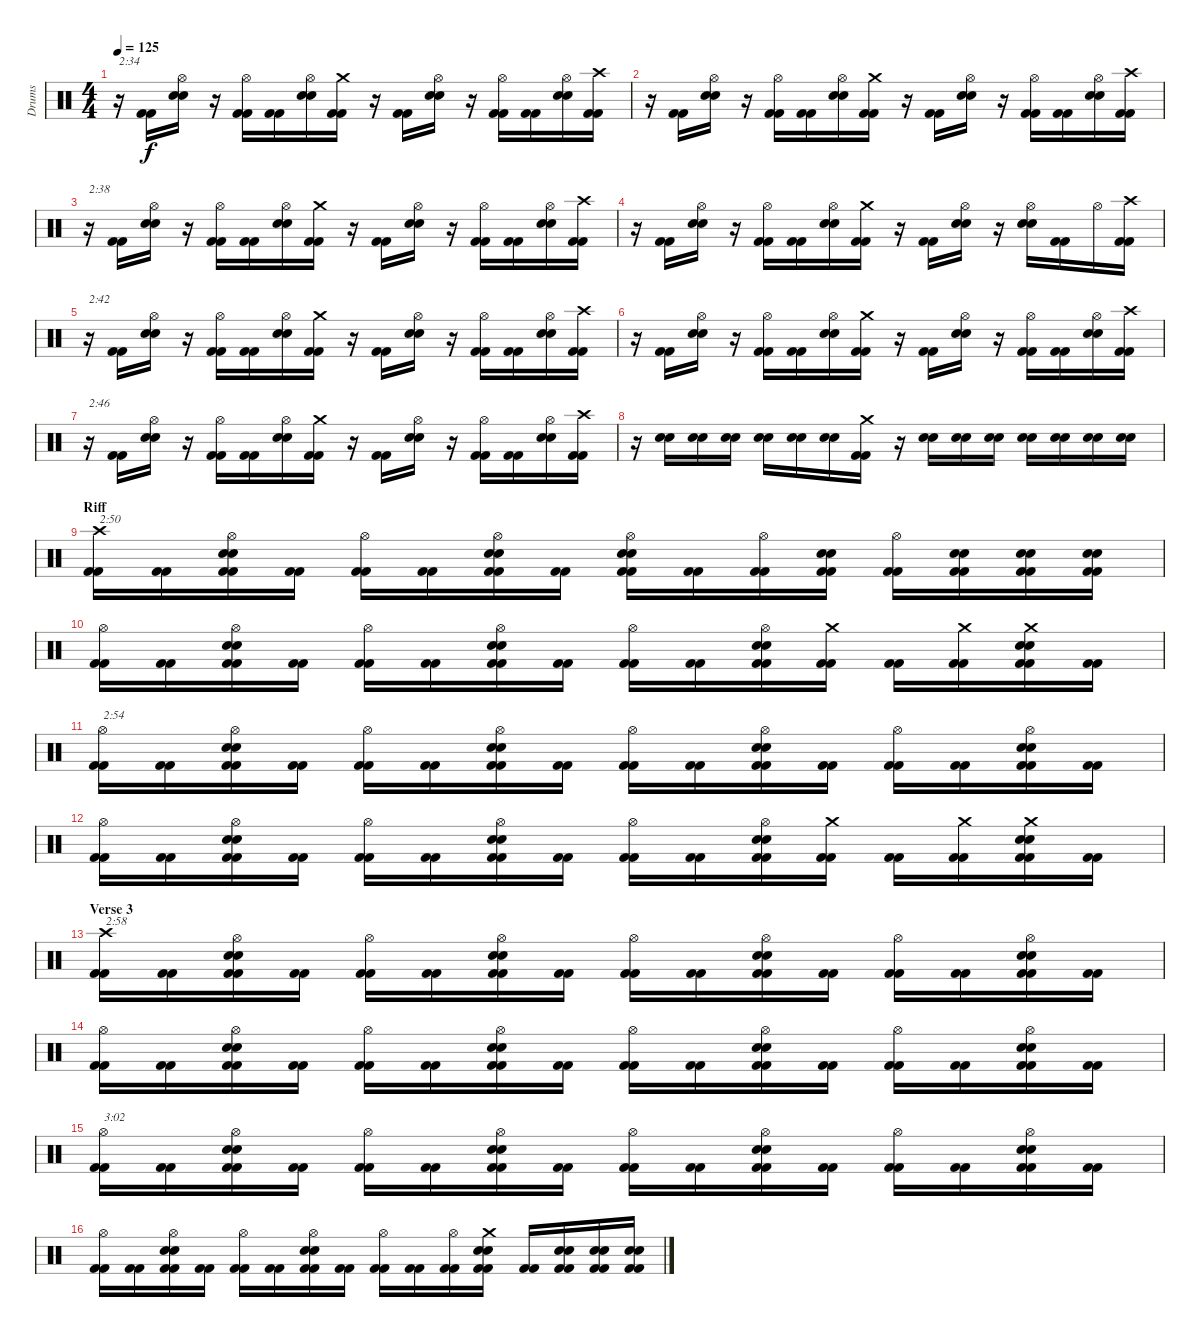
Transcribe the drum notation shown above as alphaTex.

\track ("Drums" "Drums") {instrument percussion}
\staff {score}
\articulation defaults
\ts (4 4)
\tempo 125
\clef neutral
\ks c
r.16{txt "2:34" dy f} ("Kick (hit) 2" "Kick (hit) 2").16 ("Hi-Hat (open)" "Snare (hit) 2" "Snare (hit) 2").16 r.16 ("Hi-Hat (open)" "Kick (hit) 2" "Kick (hit) 2").16 ("Kick (hit) 2" "Kick (hit) 2").16 ("Hi-Hat (open)" "Snare (hit) 2" "Snare (hit) 2").16 ("Crash medium (hit)" "Kick (hit) 2" "Kick (hit) 2").16 r.16 ("Kick (hit) 2" "Kick (hit) 2").16 ("Hi-Hat (open)" "Snare (hit) 2" "Snare (hit) 2").16 r.16 ("Hi-Hat (open)" "Kick (hit) 2" "Kick (hit) 2").16 ("Kick (hit) 2" "Kick (hit) 2").16 ("Hi-Hat (open)" "Snare (hit) 2" "Snare (hit) 2").16 ("Crash high (hit)" "Kick (hit) 2" "Kick (hit) 2").16 |
r.16 ("Kick (hit) 2" "Kick (hit) 2").16 ("Hi-Hat (open)" "Snare (hit) 2" "Snare (hit) 2").16 r.16 ("Hi-Hat (open)" "Kick (hit) 2" "Kick (hit) 2").16 ("Kick (hit) 2" "Kick (hit) 2").16 ("Hi-Hat (open)" "Snare (hit) 2" "Snare (hit) 2").16 ("Crash medium (hit)" "Kick (hit) 2" "Kick (hit) 2").16 r.16 ("Kick (hit) 2" "Kick (hit) 2").16 ("Hi-Hat (open)" "Snare (hit) 2" "Snare (hit) 2").16 r.16 ("Hi-Hat (open)" "Kick (hit) 2" "Kick (hit) 2").16 ("Kick (hit) 2" "Kick (hit) 2").16 ("Hi-Hat (open)" "Snare (hit) 2" "Snare (hit) 2").16 ("Crash high (hit)" "Kick (hit) 2" "Kick (hit) 2").16 |
r.16{txt "2:38"} ("Kick (hit) 2" "Kick (hit) 2").16 ("Hi-Hat (open)" "Snare (hit) 2" "Snare (hit) 2").16 r.16 ("Hi-Hat (open)" "Kick (hit) 2" "Kick (hit) 2").16 ("Kick (hit) 2" "Kick (hit) 2").16 ("Hi-Hat (open)" "Snare (hit) 2" "Snare (hit) 2").16 ("Crash medium (hit)" "Kick (hit) 2" "Kick (hit) 2").16 r.16 ("Kick (hit) 2" "Kick (hit) 2").16 ("Hi-Hat (open)" "Snare (hit) 2" "Snare (hit) 2").16 r.16 ("Hi-Hat (open)" "Kick (hit) 2" "Kick (hit) 2").16 ("Kick (hit) 2" "Kick (hit) 2").16 ("Hi-Hat (open)" "Snare (hit) 2" "Snare (hit) 2").16 ("Crash high (hit)" "Kick (hit) 2" "Kick (hit) 2").16 |
r.16 ("Kick (hit) 2" "Kick (hit) 2").16 ("Hi-Hat (open)" "Snare (hit) 2" "Snare (hit) 2").16 r.16 ("Hi-Hat (open)" "Kick (hit) 2" "Kick (hit) 2").16 ("Kick (hit) 2" "Kick (hit) 2").16 ("Hi-Hat (open)" "Snare (hit) 2" "Snare (hit) 2").16 ("Crash medium (hit)" "Kick (hit) 2" "Kick (hit) 2").16 r.16 ("Kick (hit) 2" "Kick (hit) 2").16 ("Hi-Hat (open)" "Snare (hit) 2" "Snare (hit) 2").16 r.16 ("Hi-Hat (open)" "Snare (hit) 2" "Snare (hit) 2").16 ("Kick (hit) 2" "Kick (hit) 2").16 "Hi-Hat (open)".16 ("Crash high (hit)" "Kick (hit) 2" "Kick (hit) 2").16 |
r.16{txt "2:42"} ("Kick (hit) 2" "Kick (hit) 2").16 ("Hi-Hat (open)" "Snare (hit) 2" "Snare (hit) 2").16 r.16 ("Hi-Hat (open)" "Kick (hit) 2" "Kick (hit) 2").16 ("Kick (hit) 2" "Kick (hit) 2").16 ("Hi-Hat (open)" "Snare (hit) 2" "Snare (hit) 2").16 ("Crash medium (hit)" "Kick (hit) 2" "Kick (hit) 2").16 r.16 ("Kick (hit) 2" "Kick (hit) 2").16 ("Hi-Hat (open)" "Snare (hit) 2" "Snare (hit) 2").16 r.16 ("Hi-Hat (open)" "Kick (hit) 2" "Kick (hit) 2").16 ("Kick (hit) 2" "Kick (hit) 2").16 ("Hi-Hat (open)" "Snare (hit) 2" "Snare (hit) 2").16 ("Crash high (hit)" "Kick (hit) 2" "Kick (hit) 2").16 |
r.16 ("Kick (hit) 2" "Kick (hit) 2").16 ("Hi-Hat (open)" "Snare (hit) 2" "Snare (hit) 2").16 r.16 ("Hi-Hat (open)" "Kick (hit) 2" "Kick (hit) 2").16 ("Kick (hit) 2" "Kick (hit) 2").16 ("Hi-Hat (open)" "Snare (hit) 2" "Snare (hit) 2").16 ("Crash medium (hit)" "Kick (hit) 2" "Kick (hit) 2").16 r.16 ("Kick (hit) 2" "Kick (hit) 2").16 ("Hi-Hat (open)" "Snare (hit) 2" "Snare (hit) 2").16 r.16 ("Hi-Hat (open)" "Kick (hit) 2" "Kick (hit) 2").16 ("Kick (hit) 2" "Kick (hit) 2").16 ("Hi-Hat (open)" "Snare (hit) 2" "Snare (hit) 2").16 ("Crash high (hit)" "Kick (hit) 2" "Kick (hit) 2").16 |
r.16{txt "2:46"} ("Kick (hit) 2" "Kick (hit) 2").16 ("Hi-Hat (open)" "Snare (hit) 2" "Snare (hit) 2").16 r.16 ("Hi-Hat (open)" "Kick (hit) 2" "Kick (hit) 2").16 ("Kick (hit) 2" "Kick (hit) 2").16 ("Hi-Hat (open)" "Snare (hit) 2" "Snare (hit) 2").16 ("Crash medium (hit)" "Kick (hit) 2" "Kick (hit) 2").16 r.16 ("Kick (hit) 2" "Kick (hit) 2").16 ("Hi-Hat (open)" "Snare (hit) 2" "Snare (hit) 2").16 r.16 ("Hi-Hat (open)" "Kick (hit) 2" "Kick (hit) 2").16 ("Kick (hit) 2" "Kick (hit) 2").16 ("Hi-Hat (open)" "Snare (hit) 2" "Snare (hit) 2").16 ("Crash high (hit)" "Kick (hit) 2" "Kick (hit) 2").16 |
r.16 ("Snare (hit) 2" "Snare (hit) 2").16 ("Snare (hit) 2" "Snare (hit) 2").16 ("Snare (hit) 2" "Snare (hit) 2").16 ("Snare (hit) 2" "Snare (hit) 2").16 ("Snare (hit) 2" "Snare (hit) 2").16 ("Snare (hit) 2" "Snare (hit) 2").16 ("Crash medium (hit)" "Kick (hit) 2" "Kick (hit) 2").16 r.16 ("Snare (hit) 2" "Snare (hit) 2").16 ("Snare (hit) 2" "Snare (hit) 2").16 ("Snare (hit) 2" "Snare (hit) 2").16 ("Snare (hit) 2" "Snare (hit) 2").16 ("Snare (hit) 2" "Snare (hit) 2").16 ("Snare (hit) 2" "Snare (hit) 2").16 ("Snare (hit) 2" "Snare (hit) 2").16 |
\section ("" "Riff")
("Crash high (hit)" "Kick (hit) 2" "Kick (hit) 2").16{txt "2:50"} ("Kick (hit) 2" "Kick (hit) 2").16 ("Hi-Hat (open)" "Snare (hit) 2" "Snare (hit) 2" "Kick (hit) 2" "Kick (hit) 2").16 ("Kick (hit) 2" "Kick (hit) 2").16 ("Hi-Hat (open)" "Kick (hit) 2" "Kick (hit) 2").16 ("Kick (hit) 2" "Kick (hit) 2").16 ("Hi-Hat (open)" "Snare (hit) 2" "Snare (hit) 2" "Kick (hit) 2" "Kick (hit) 2").16 ("Kick (hit) 2" "Kick (hit) 2").16 ("Hi-Hat (open)" "Snare (hit) 2" "Snare (hit) 2" "Kick (hit) 2" "Kick (hit) 2").16 ("Kick (hit) 2" "Kick (hit) 2").16 ("Hi-Hat (open)" "Kick (hit) 2" "Kick (hit) 2").16 ("Snare (hit) 2" "Snare (hit) 2" "Kick (hit) 2" "Kick (hit) 2").16 ("Hi-Hat (open)" "Kick (hit) 2" "Kick (hit) 2").16 ("Snare (hit) 2" "Snare (hit) 2" "Kick (hit) 2" "Kick (hit) 2").16 ("Snare (hit) 2" "Snare (hit) 2" "Kick (hit) 2" "Kick (hit) 2").16 ("Snare (hit) 2" "Snare (hit) 2" "Kick (hit) 2" "Kick (hit) 2").16 |
("Hi-Hat (open)" "Kick (hit) 2" "Kick (hit) 2").16 ("Kick (hit) 2" "Kick (hit) 2").16 ("Hi-Hat (open)" "Snare (hit) 2" "Snare (hit) 2" "Kick (hit) 2" "Kick (hit) 2").16 ("Kick (hit) 2" "Kick (hit) 2").16 ("Hi-Hat (open)" "Kick (hit) 2" "Kick (hit) 2").16 ("Kick (hit) 2" "Kick (hit) 2").16 ("Hi-Hat (open)" "Snare (hit) 2" "Snare (hit) 2" "Kick (hit) 2" "Kick (hit) 2").16 ("Kick (hit) 2" "Kick (hit) 2").16 ("Hi-Hat (open)" "Kick (hit) 2" "Kick (hit) 2").16 ("Kick (hit) 2" "Kick (hit) 2").16 ("Hi-Hat (open)" "Snare (hit) 2" "Snare (hit) 2" "Kick (hit) 2" "Kick (hit) 2").16 ("Crash medium (hit)" "Kick (hit) 2" "Kick (hit) 2").16 ("Kick (hit) 2" "Kick (hit) 2").16 ("Crash medium (hit)" "Kick (hit) 2" "Kick (hit) 2").16 ("Crash medium (hit)" "Snare (hit) 2" "Snare (hit) 2" "Kick (hit) 2" "Kick (hit) 2").16 ("Kick (hit) 2" "Kick (hit) 2").16 |
("Hi-Hat (open)" "Kick (hit) 2" "Kick (hit) 2").16{txt "2:54"} ("Kick (hit) 2" "Kick (hit) 2").16 ("Hi-Hat (open)" "Snare (hit) 2" "Snare (hit) 2" "Kick (hit) 2" "Kick (hit) 2").16 ("Kick (hit) 2" "Kick (hit) 2").16 ("Hi-Hat (open)" "Kick (hit) 2" "Kick (hit) 2").16 ("Kick (hit) 2" "Kick (hit) 2").16 ("Hi-Hat (open)" "Snare (hit) 2" "Snare (hit) 2" "Kick (hit) 2" "Kick (hit) 2").16 ("Kick (hit) 2" "Kick (hit) 2").16 ("Hi-Hat (open)" "Kick (hit) 2" "Kick (hit) 2").16 ("Kick (hit) 2" "Kick (hit) 2").16 ("Hi-Hat (open)" "Snare (hit) 2" "Snare (hit) 2" "Kick (hit) 2" "Kick (hit) 2").16 ("Kick (hit) 2" "Kick (hit) 2").16 ("Hi-Hat (open)" "Kick (hit) 2" "Kick (hit) 2").16 ("Kick (hit) 2" "Kick (hit) 2").16 ("Hi-Hat (open)" "Snare (hit) 2" "Snare (hit) 2" "Kick (hit) 2" "Kick (hit) 2").16 ("Kick (hit) 2" "Kick (hit) 2").16 |
("Hi-Hat (open)" "Kick (hit) 2" "Kick (hit) 2").16 ("Kick (hit) 2" "Kick (hit) 2").16 ("Hi-Hat (open)" "Snare (hit) 2" "Snare (hit) 2" "Kick (hit) 2" "Kick (hit) 2").16 ("Kick (hit) 2" "Kick (hit) 2").16 ("Hi-Hat (open)" "Kick (hit) 2" "Kick (hit) 2").16 ("Kick (hit) 2" "Kick (hit) 2").16 ("Hi-Hat (open)" "Snare (hit) 2" "Snare (hit) 2" "Kick (hit) 2" "Kick (hit) 2").16 ("Kick (hit) 2" "Kick (hit) 2").16 ("Hi-Hat (open)" "Kick (hit) 2" "Kick (hit) 2").16 ("Kick (hit) 2" "Kick (hit) 2").16 ("Hi-Hat (open)" "Snare (hit) 2" "Snare (hit) 2" "Kick (hit) 2" "Kick (hit) 2").16 ("Crash medium (hit)" "Kick (hit) 2" "Kick (hit) 2").16 ("Kick (hit) 2" "Kick (hit) 2").16 ("Crash medium (hit)" "Kick (hit) 2" "Kick (hit) 2").16 ("Crash medium (hit)" "Snare (hit) 2" "Snare (hit) 2" "Kick (hit) 2" "Kick (hit) 2").16 ("Kick (hit) 2" "Kick (hit) 2").16 |
\section ("" "Verse 3")
("Crash high (hit)" "Kick (hit) 2" "Kick (hit) 2").16{txt "2:58"} ("Kick (hit) 2" "Kick (hit) 2").16 ("Hi-Hat (open)" "Snare (hit) 2" "Snare (hit) 2" "Kick (hit) 2" "Kick (hit) 2").16 ("Kick (hit) 2" "Kick (hit) 2").16 ("Hi-Hat (open)" "Kick (hit) 2" "Kick (hit) 2").16 ("Kick (hit) 2" "Kick (hit) 2").16 ("Hi-Hat (open)" "Snare (hit) 2" "Snare (hit) 2" "Kick (hit) 2" "Kick (hit) 2").16 ("Kick (hit) 2" "Kick (hit) 2").16 ("Hi-Hat (open)" "Kick (hit) 2" "Kick (hit) 2").16 ("Kick (hit) 2" "Kick (hit) 2").16 ("Hi-Hat (open)" "Snare (hit) 2" "Snare (hit) 2" "Kick (hit) 2" "Kick (hit) 2").16 ("Kick (hit) 2" "Kick (hit) 2").16 ("Hi-Hat (open)" "Kick (hit) 2" "Kick (hit) 2").16 ("Kick (hit) 2" "Kick (hit) 2").16 ("Hi-Hat (open)" "Snare (hit) 2" "Snare (hit) 2" "Kick (hit) 2" "Kick (hit) 2").16 ("Kick (hit) 2" "Kick (hit) 2").16 |
("Hi-Hat (open)" "Kick (hit) 2" "Kick (hit) 2").16 ("Kick (hit) 2" "Kick (hit) 2").16 ("Hi-Hat (open)" "Snare (hit) 2" "Snare (hit) 2" "Kick (hit) 2" "Kick (hit) 2").16 ("Kick (hit) 2" "Kick (hit) 2").16 ("Hi-Hat (open)" "Kick (hit) 2" "Kick (hit) 2").16 ("Kick (hit) 2" "Kick (hit) 2").16 ("Hi-Hat (open)" "Snare (hit) 2" "Snare (hit) 2" "Kick (hit) 2" "Kick (hit) 2").16 ("Kick (hit) 2" "Kick (hit) 2").16 ("Hi-Hat (open)" "Kick (hit) 2" "Kick (hit) 2").16 ("Kick (hit) 2" "Kick (hit) 2").16 ("Hi-Hat (open)" "Snare (hit) 2" "Snare (hit) 2" "Kick (hit) 2" "Kick (hit) 2").16 ("Kick (hit) 2" "Kick (hit) 2").16 ("Hi-Hat (open)" "Kick (hit) 2" "Kick (hit) 2").16 ("Kick (hit) 2" "Kick (hit) 2").16 ("Hi-Hat (open)" "Snare (hit) 2" "Snare (hit) 2" "Kick (hit) 2" "Kick (hit) 2").16 ("Kick (hit) 2" "Kick (hit) 2").16 |
("Hi-Hat (open)" "Kick (hit) 2" "Kick (hit) 2").16{txt "3:02"} ("Kick (hit) 2" "Kick (hit) 2").16 ("Hi-Hat (open)" "Snare (hit) 2" "Snare (hit) 2" "Kick (hit) 2" "Kick (hit) 2").16 ("Kick (hit) 2" "Kick (hit) 2").16 ("Hi-Hat (open)" "Kick (hit) 2" "Kick (hit) 2").16 ("Kick (hit) 2" "Kick (hit) 2").16 ("Hi-Hat (open)" "Snare (hit) 2" "Snare (hit) 2" "Kick (hit) 2" "Kick (hit) 2").16 ("Kick (hit) 2" "Kick (hit) 2").16 ("Hi-Hat (open)" "Kick (hit) 2" "Kick (hit) 2").16 ("Kick (hit) 2" "Kick (hit) 2").16 ("Hi-Hat (open)" "Snare (hit) 2" "Snare (hit) 2" "Kick (hit) 2" "Kick (hit) 2").16 ("Kick (hit) 2" "Kick (hit) 2").16 ("Hi-Hat (open)" "Kick (hit) 2" "Kick (hit) 2").16 ("Kick (hit) 2" "Kick (hit) 2").16 ("Hi-Hat (open)" "Snare (hit) 2" "Snare (hit) 2" "Kick (hit) 2" "Kick (hit) 2").16 ("Kick (hit) 2" "Kick (hit) 2").16 |
("Hi-Hat (open)" "Kick (hit) 2" "Kick (hit) 2").16 ("Kick (hit) 2" "Kick (hit) 2").16 ("Hi-Hat (open)" "Snare (hit) 2" "Snare (hit) 2" "Kick (hit) 2" "Kick (hit) 2").16 ("Kick (hit) 2" "Kick (hit) 2").16 ("Hi-Hat (open)" "Kick (hit) 2" "Kick (hit) 2").16 ("Kick (hit) 2" "Kick (hit) 2").16 ("Hi-Hat (open)" "Snare (hit) 2" "Snare (hit) 2" "Kick (hit) 2" "Kick (hit) 2").16 ("Kick (hit) 2" "Kick (hit) 2").16 ("Hi-Hat (open)" "Kick (hit) 2" "Kick (hit) 2").16 ("Kick (hit) 2" "Kick (hit) 2").16 ("Hi-Hat (open)" "Kick (hit) 2" "Kick (hit) 2").16 ("Crash medium (hit)" "Snare (hit) 2" "Snare (hit) 2" "Kick (hit) 2" "Kick (hit) 2").16 ("Kick (hit) 2" "Kick (hit) 2").16 ("Snare (hit) 2" "Snare (hit) 2" "Kick (hit) 2" "Kick (hit) 2").16 ("Snare (hit) 2" "Snare (hit) 2" "Kick (hit) 2" "Kick (hit) 2").16 ("Snare (hit) 2" "Snare (hit) 2" "Kick (hit) 2" "Kick (hit) 2").16
